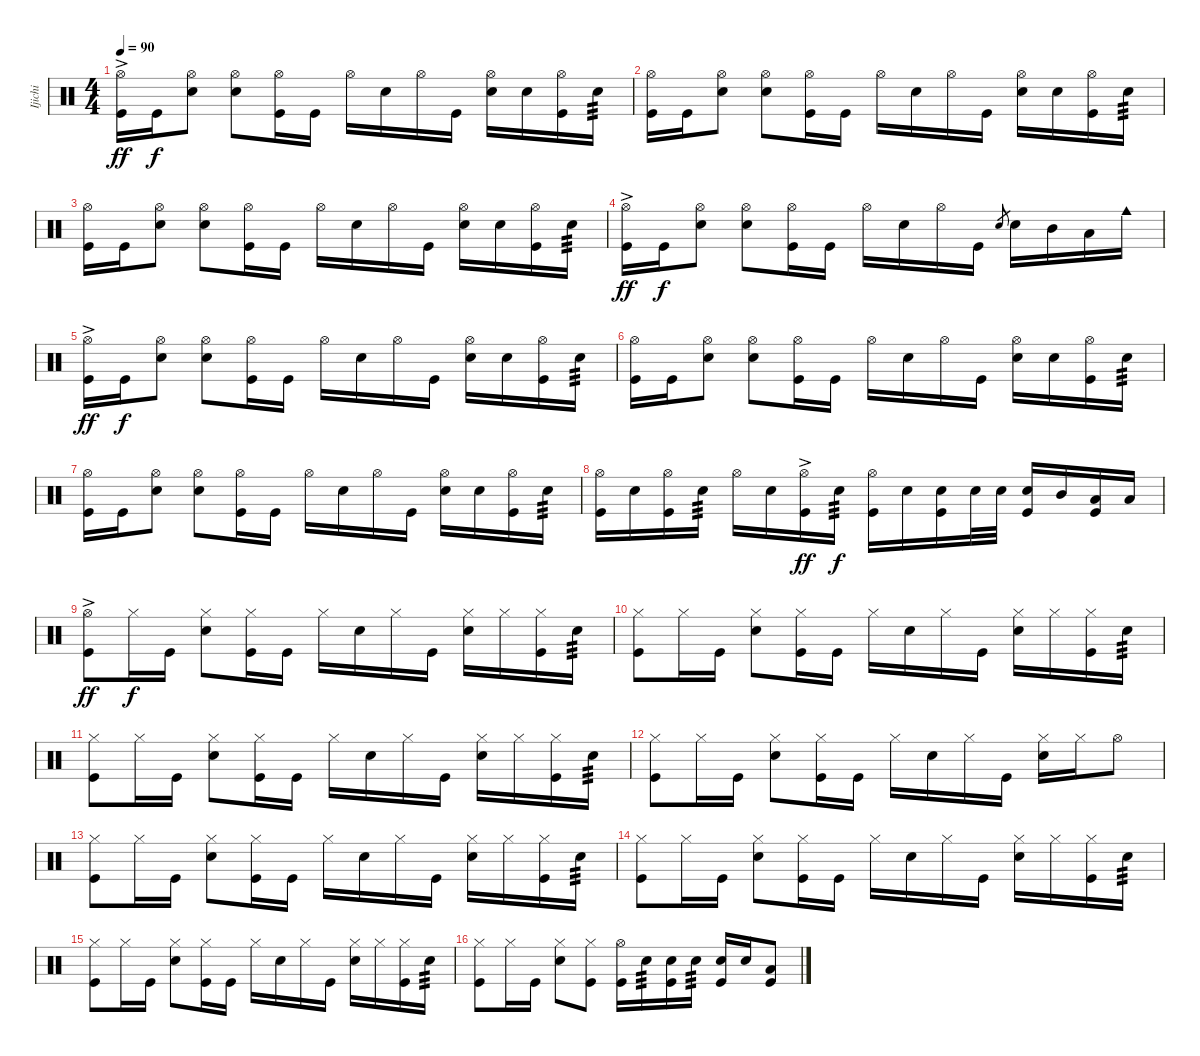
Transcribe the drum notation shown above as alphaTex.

\track ("Ijichi" "Ijichi") {instrument percussion}
\staff {score}
\articulation defaults
\ts (4 4)
\tempo 90
\clef neutral
\ks c
("Hi-Hat (open)"{ac} "Kick (hit)").16{dy ff} "Kick (hit)".16{dy f} ("Hi-Hat (open)" "Snare (hit) 2").8 ("Hi-Hat (open)" "Snare (hit) 2").8 ("Hi-Hat (open)" "Kick (hit)").16 "Kick (hit)".16 "Hi-Hat (open)".16 "Snare (hit) 2".16 "Hi-Hat (open)".16 "Kick (hit)".16 ("Hi-Hat (open)" "Snare (hit) 2").16 "Snare (hit) 2".16 ("Hi-Hat (open)" "Kick (hit)").16 "Snare (hit) 2".16{tp 3} |
("Hi-Hat (open)" "Kick (hit)").16 "Kick (hit)".16 ("Hi-Hat (open)" "Snare (hit) 2").8 ("Hi-Hat (open)" "Snare (hit) 2").8 ("Hi-Hat (open)" "Kick (hit)").16 "Kick (hit)".16 "Hi-Hat (open)".16 "Snare (hit) 2".16 "Hi-Hat (open)".16 "Kick (hit)".16 ("Hi-Hat (open)" "Snare (hit) 2").16 "Snare (hit) 2".16 ("Hi-Hat (open)" "Kick (hit)").16 "Snare (hit) 2".16{tp 3} |
("Hi-Hat (open)" "Kick (hit)").16 "Kick (hit)".16 ("Hi-Hat (open)" "Snare (hit) 2").8 ("Hi-Hat (open)" "Snare (hit) 2").8 ("Hi-Hat (open)" "Kick (hit)").16 "Kick (hit)".16 "Hi-Hat (open)".16 "Snare (hit) 2".16 "Hi-Hat (open)".16 "Kick (hit)".16 ("Hi-Hat (open)" "Snare (hit) 2").16 "Snare (hit) 2".16 ("Hi-Hat (open)" "Kick (hit)").16 "Snare (hit) 2".16{tp 3} |
("Hi-Hat (open)"{ac} "Kick (hit)").16{dy ff} "Kick (hit)".16{dy f} ("Hi-Hat (open)" "Snare (hit) 2").8 ("Hi-Hat (open)" "Snare (hit) 2").8 ("Hi-Hat (open)" "Kick (hit)").16 "Kick (hit)".16 "Hi-Hat (open)".16 "Snare (hit) 2".16 "Hi-Hat (open)".16 "Kick (hit)".16 "Snare (hit) 2".8{gr} "Snare (hit) 2".16 "Mid Tom (hit)".16 "Low Tom (hit)".16 "Cowbell medium (hit)".16 |
("Hi-Hat (open)"{ac} "Kick (hit)").16{dy ff} "Kick (hit)".16{dy f} ("Hi-Hat (open)" "Snare (hit) 2").8 ("Hi-Hat (open)" "Snare (hit) 2").8 ("Hi-Hat (open)" "Kick (hit)").16 "Kick (hit)".16 "Hi-Hat (open)".16 "Snare (hit) 2".16 "Hi-Hat (open)".16 "Kick (hit)".16 ("Hi-Hat (open)" "Snare (hit) 2").16 "Snare (hit) 2".16 ("Hi-Hat (open)" "Kick (hit)").16 "Snare (hit) 2".16{tp 3} |
("Hi-Hat (open)" "Kick (hit)").16 "Kick (hit)".16 ("Hi-Hat (open)" "Snare (hit) 2").8 ("Hi-Hat (open)" "Snare (hit) 2").8 ("Hi-Hat (open)" "Kick (hit)").16 "Kick (hit)".16 "Hi-Hat (open)".16 "Snare (hit) 2".16 "Hi-Hat (open)".16 "Kick (hit)".16 ("Hi-Hat (open)" "Snare (hit) 2").16 "Snare (hit) 2".16 ("Hi-Hat (open)" "Kick (hit)").16 "Snare (hit) 2".16{tp 3} |
("Hi-Hat (open)" "Kick (hit)").16 "Kick (hit)".16 ("Hi-Hat (open)" "Snare (hit) 2").8 ("Hi-Hat (open)" "Snare (hit) 2").8 ("Hi-Hat (open)" "Kick (hit)").16 "Kick (hit)".16 "Hi-Hat (open)".16 "Snare (hit) 2".16 "Hi-Hat (open)".16 "Kick (hit)".16 ("Hi-Hat (open)" "Snare (hit) 2").16 "Snare (hit) 2".16 ("Hi-Hat (open)" "Kick (hit)").16 "Snare (hit) 2".16{tp 3} |
("Hi-Hat (open)" "Kick (hit)").16 "Snare (hit) 2".16 ("Hi-Hat (open)" "Kick (hit)").16 "Snare (hit) 2".16{tp 3} "Hi-Hat (open)".16 "Snare (hit) 2".16 ("Hi-Hat (open)"{ac} "Kick (hit)").16{dy ff} "Snare (hit) 2".16{tp 3 dy f} ("Hi-Hat (open)" "Kick (hit)").16 "Snare (hit) 2".16 ("Snare (hit) 2" "Kick (hit)").16 "Snare (hit) 2".32 "Snare (hit) 2".32 ("Snare (hit) 2" "Kick (hit)").16 "Mid Tom (hit)".16 ("Low Tom (hit)" "Kick (hit)").16 "Low Tom (hit)".16 |
("Hi-Hat (open)"{ac} "Kick (hit)").8{dy ff} "Hi-Hat (closed)".16{dy f} "Kick (hit)".16 ("Hi-Hat (closed)" "Snare (hit) 2").8 ("Hi-Hat (closed)" "Kick (hit)").16 "Kick (hit)".16 "Hi-Hat (closed)".16 "Snare (hit) 2".16 "Hi-Hat (closed)".16 "Kick (hit)".16 ("Hi-Hat (closed)" "Snare (hit) 2").16 "Hi-Hat (closed)".16 ("Hi-Hat (closed)" "Kick (hit)").16 "Snare (hit) 2".16{tp 3} |
("Hi-Hat (closed)" "Kick (hit)").8 "Hi-Hat (closed)".16 "Kick (hit)".16 ("Hi-Hat (closed)" "Snare (hit) 2").8 ("Hi-Hat (closed)" "Kick (hit)").16 "Kick (hit)".16 "Hi-Hat (closed)".16 "Snare (hit) 2".16 "Hi-Hat (closed)".16 "Kick (hit)".16 ("Hi-Hat (closed)" "Snare (hit) 2").16 "Hi-Hat (closed)".16 ("Hi-Hat (closed)" "Kick (hit)").16 "Snare (hit) 2".16{tp 3} |
("Hi-Hat (closed)" "Kick (hit)").8 "Hi-Hat (closed)".16 "Kick (hit)".16 ("Hi-Hat (closed)" "Snare (hit) 2").8 ("Hi-Hat (closed)" "Kick (hit)").16 "Kick (hit)".16 "Hi-Hat (closed)".16 "Snare (hit) 2".16 "Hi-Hat (closed)".16 "Kick (hit)".16 ("Hi-Hat (closed)" "Snare (hit) 2").16 "Hi-Hat (closed)".16 ("Hi-Hat (closed)" "Kick (hit)").16 "Snare (hit) 2".16{tp 3} |
("Hi-Hat (closed)" "Kick (hit)").8 "Hi-Hat (closed)".16 "Kick (hit)".16 ("Hi-Hat (closed)" "Snare (hit) 2").8 ("Hi-Hat (closed)" "Kick (hit)").16 "Kick (hit)".16 "Hi-Hat (closed)".16 "Snare (hit) 2".16 "Hi-Hat (closed)".16 "Kick (hit)".16 ("Hi-Hat (closed)" "Snare (hit) 2").16 "Hi-Hat (closed)".16 "Hi-Hat (open)".8 |
("Hi-Hat (closed)" "Kick (hit)").8 "Hi-Hat (closed)".16 "Kick (hit)".16 ("Hi-Hat (closed)" "Snare (hit) 2").8 ("Hi-Hat (closed)" "Kick (hit)").16 "Kick (hit)".16 "Hi-Hat (closed)".16 "Snare (hit) 2".16 "Hi-Hat (closed)".16 "Kick (hit)".16 ("Hi-Hat (closed)" "Snare (hit) 2").16 "Hi-Hat (closed)".16 ("Hi-Hat (closed)" "Kick (hit)").16 "Snare (hit) 2".16{tp 3} |
("Hi-Hat (closed)" "Kick (hit)").8 "Hi-Hat (closed)".16 "Kick (hit)".16 ("Hi-Hat (closed)" "Snare (hit) 2").8 ("Hi-Hat (closed)" "Kick (hit)").16 "Kick (hit)".16 "Hi-Hat (closed)".16 "Snare (hit) 2".16 "Hi-Hat (closed)".16 "Kick (hit)".16 ("Hi-Hat (closed)" "Snare (hit) 2").16 "Hi-Hat (closed)".16 ("Hi-Hat (closed)" "Kick (hit)").16 "Snare (hit) 2".16{tp 3} |
("Hi-Hat (closed)" "Kick (hit)").8 "Hi-Hat (closed)".16 "Kick (hit)".16 ("Hi-Hat (closed)" "Snare (hit) 2").8 ("Hi-Hat (closed)" "Kick (hit)").16 "Kick (hit)".16 "Hi-Hat (closed)".16 "Snare (hit) 2".16 "Hi-Hat (closed)".16 "Kick (hit)".16 ("Hi-Hat (closed)" "Snare (hit) 2").16 "Hi-Hat (closed)".16 ("Hi-Hat (closed)" "Kick (hit)").16 "Snare (hit) 2".16{tp 3} |
("Hi-Hat (closed)" "Kick (hit)").8 "Hi-Hat (closed)".16 "Kick (hit)".16 ("Hi-Hat (closed)" "Snare (hit) 2").8 ("Hi-Hat (closed)" "Kick (hit)").8 ("Hi-Hat (open)" "Kick (hit)").16 "Snare (hit) 2".16{tp 3} ("Snare (hit) 2" "Kick (hit)").16 "Snare (hit) 2".16{tp 3} ("Snare (hit) 2" "Kick (hit)").16 "Snare (hit) 2".16 ("Low Tom (hit)" "Kick (hit)").8
